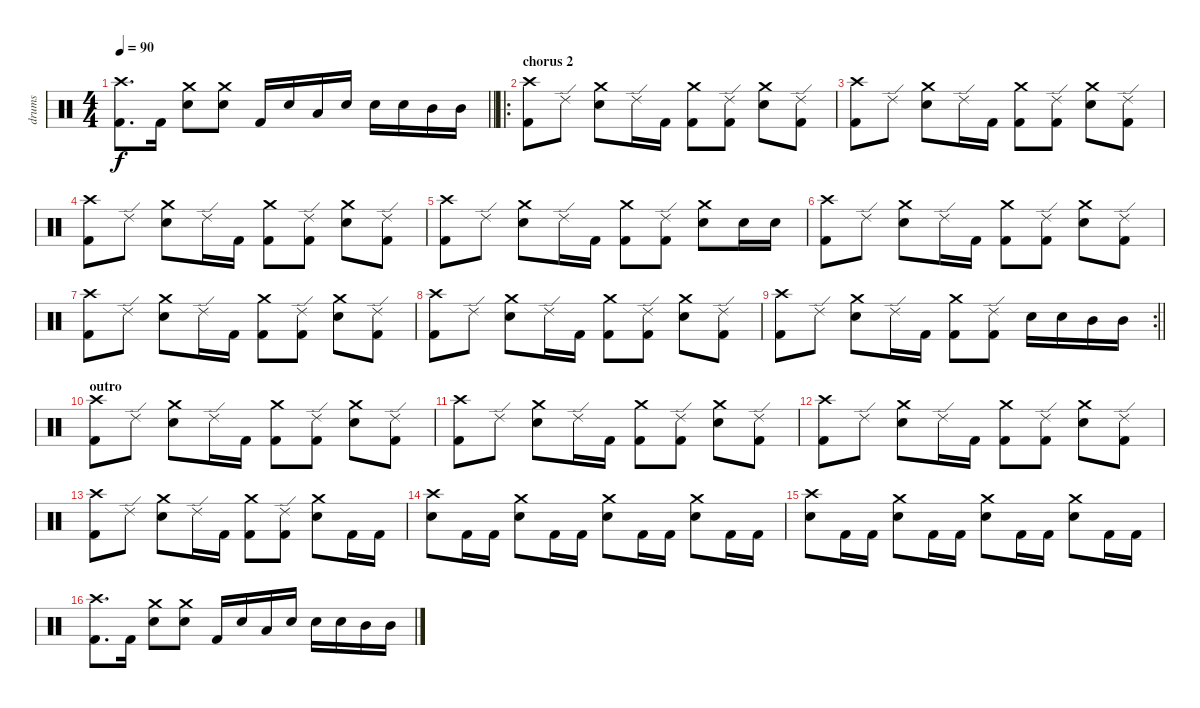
\track ("drums" "drums") {instrument percussion}
\staff
\articulation defaults
\ts (4 4)
\tempo 90
\clef neutral
\barLineRight lightlight
\ks c
("Crash high (hit)" "Kick (hit) 2").8{d dy f} "Kick (hit) 2".16 ("Crash medium (hit)" "Electric Snare (hit)").8 ("Crash medium (hit)" "Electric Snare (hit)").8 "Kick (hit) 2".16 "Electric Snare (hit)".16 "Low Tom (hit)".16 "Electric Snare (hit)".16 "Electric Snare (hit)".16 "Electric Snare (hit)".16 "Mid Tom (hit)".16 "Mid Tom (hit)".16 |
\ro
\section ("" "chorus 2")
("Crash high (hit)" "Kick (hit) 2").8 "Ride (edge) 2".8 ("Crash medium (hit)" "Electric Snare (hit)").8 "Ride (edge) 2".16 "Kick (hit) 2".16 ("Crash medium (hit)" "Kick (hit) 2").8 ("Ride (edge) 2" "Kick (hit) 2").8 ("Crash medium (hit)" "Electric Snare (hit)").8 ("Ride (edge) 2" "Kick (hit) 2").8 |
("Crash high (hit)" "Kick (hit) 2").8 "Ride (edge) 2".8 ("Crash medium (hit)" "Electric Snare (hit)").8 "Ride (edge) 2".16 "Kick (hit) 2".16 ("Crash medium (hit)" "Kick (hit) 2").8 ("Ride (edge) 2" "Kick (hit) 2").8 ("Crash medium (hit)" "Electric Snare (hit)").8 ("Ride (edge) 2" "Kick (hit) 2").8 |
("Crash high (hit)" "Kick (hit) 2").8 "Ride (edge) 2".8 ("Crash medium (hit)" "Electric Snare (hit)").8 "Ride (edge) 2".16 "Kick (hit) 2".16 ("Crash medium (hit)" "Kick (hit) 2").8 ("Ride (edge) 2" "Kick (hit) 2").8 ("Crash medium (hit)" "Electric Snare (hit)").8 ("Ride (edge) 2" "Kick (hit) 2").8 |
("Crash high (hit)" "Kick (hit) 2").8 "Ride (edge) 2".8 ("Crash medium (hit)" "Electric Snare (hit)").8 "Ride (edge) 2".16 "Kick (hit) 2".16 ("Crash medium (hit)" "Kick (hit) 2").8 ("Ride (edge) 2" "Kick (hit) 2").8 ("Crash medium (hit)" "Electric Snare (hit)").8 "Electric Snare (hit)".16 "Electric Snare (hit)".16 |
("Crash high (hit)" "Kick (hit) 2").8 "Ride (edge) 2".8 ("Crash medium (hit)" "Electric Snare (hit)").8 "Ride (edge) 2".16 "Kick (hit) 2".16 ("Crash medium (hit)" "Kick (hit) 2").8 ("Ride (edge) 2" "Kick (hit) 2").8 ("Crash medium (hit)" "Electric Snare (hit)").8 ("Ride (edge) 2" "Kick (hit) 2").8 |
("Crash high (hit)" "Kick (hit) 2").8 "Ride (edge) 2".8 ("Crash medium (hit)" "Electric Snare (hit)").8 "Ride (edge) 2".16 "Kick (hit) 2".16 ("Crash medium (hit)" "Kick (hit) 2").8 ("Ride (edge) 2" "Kick (hit) 2").8 ("Crash medium (hit)" "Electric Snare (hit)").8 ("Ride (edge) 2" "Kick (hit) 2").8 |
("Crash high (hit)" "Kick (hit) 2").8 "Ride (edge) 2".8 ("Crash medium (hit)" "Electric Snare (hit)").8 "Ride (edge) 2".16 "Kick (hit) 2".16 ("Crash medium (hit)" "Kick (hit) 2").8 ("Ride (edge) 2" "Kick (hit) 2").8 ("Crash medium (hit)" "Electric Snare (hit)").8 ("Ride (edge) 2" "Kick (hit) 2").8 |
\rc 2
\barLineRight lightlight
("Crash high (hit)" "Kick (hit) 2").8 "Ride (edge) 2".8 ("Crash medium (hit)" "Electric Snare (hit)").8 "Ride (edge) 2".16 "Kick (hit) 2".16 ("Crash medium (hit)" "Kick (hit) 2").8 ("Ride (edge) 2" "Kick (hit) 2").8 "Electric Snare (hit)".16 "Electric Snare (hit)".16 "Mid Tom (hit)".16 "Mid Tom (hit)".16 |
\section ("" "outro")
("Crash high (hit)" "Kick (hit) 2").8 "Ride (edge) 2".8 ("Crash medium (hit)" "Electric Snare (hit)").8 "Ride (edge) 2".16 "Kick (hit) 2".16 ("Crash medium (hit)" "Kick (hit) 2").8 ("Ride (edge) 2" "Kick (hit) 2").8 ("Crash medium (hit)" "Electric Snare (hit)").8 ("Ride (edge) 2" "Kick (hit) 2").8 |
("Crash high (hit)" "Kick (hit) 2").8 "Ride (edge) 2".8 ("Crash medium (hit)" "Electric Snare (hit)").8 "Ride (edge) 2".16 "Kick (hit) 2".16 ("Crash medium (hit)" "Kick (hit) 2").8 ("Ride (edge) 2" "Kick (hit) 2").8 ("Crash medium (hit)" "Electric Snare (hit)").8 ("Ride (edge) 2" "Kick (hit) 2").8 |
("Crash high (hit)" "Kick (hit) 2").8 "Ride (edge) 2".8 ("Crash medium (hit)" "Electric Snare (hit)").8 "Ride (edge) 2".16 "Kick (hit) 2".16 ("Crash medium (hit)" "Kick (hit) 2").8 ("Ride (edge) 2" "Kick (hit) 2").8 ("Crash medium (hit)" "Electric Snare (hit)").8 ("Ride (edge) 2" "Kick (hit) 2").8 |
("Crash high (hit)" "Kick (hit) 2").8 "Ride (edge) 2".8 ("Crash medium (hit)" "Electric Snare (hit)").8 "Ride (edge) 2".16 "Kick (hit) 2".16 ("Crash medium (hit)" "Kick (hit) 2").8 ("Ride (edge) 2" "Kick (hit) 2").8 ("Crash medium (hit)" "Electric Snare (hit)").8 "Kick (hit) 2".16 "Kick (hit) 2".16 |
("Crash high (hit)" "Electric Snare (hit)").8 "Kick (hit) 2".16 "Kick (hit) 2".16 ("Crash medium (hit)" "Electric Snare (hit)").8 "Kick (hit) 2".16 "Kick (hit) 2".16 ("Crash medium (hit)" "Electric Snare (hit)").8 "Kick (hit) 2".16 "Kick (hit) 2".16 ("Crash medium (hit)" "Electric Snare (hit)").8 "Kick (hit) 2".16 "Kick (hit) 2".16 |
("Crash high (hit)" "Electric Snare (hit)").8 "Kick (hit) 2".16 "Kick (hit) 2".16 ("Crash medium (hit)" "Electric Snare (hit)").8 "Kick (hit) 2".16 "Kick (hit) 2".16 ("Crash medium (hit)" "Electric Snare (hit)").8 "Kick (hit) 2".16 "Kick (hit) 2".16 ("Crash medium (hit)" "Electric Snare (hit)").8 "Kick (hit) 2".16 "Kick (hit) 2".16 |
("Crash high (hit)" "Kick (hit) 2").8{d} "Kick (hit) 2".16 ("Crash medium (hit)" "Electric Snare (hit)").8 ("Crash medium (hit)" "Electric Snare (hit)").8 "Kick (hit) 2".16 "Electric Snare (hit)".16 "Low Tom (hit)".16 "Electric Snare (hit)".16 "Electric Snare (hit)".16 "Electric Snare (hit)".16 "Mid Tom (hit)".16 "Mid Tom (hit)".16
